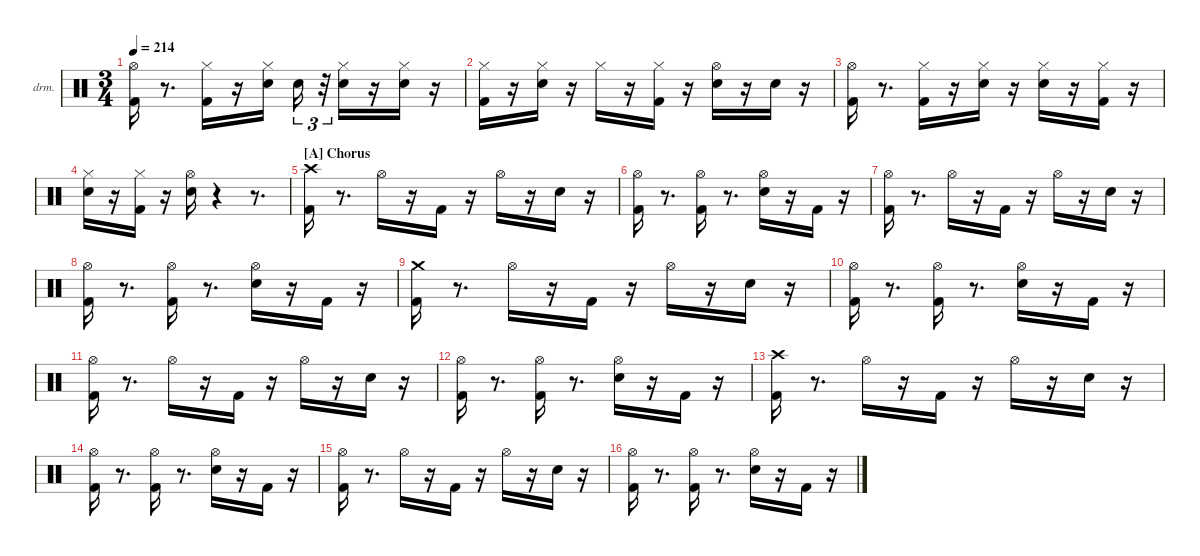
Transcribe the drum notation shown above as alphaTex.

\hideDynamics
\bracketExtendMode nobrackets
\firstSystemTrackNameOrientation horizontal
\track ("EZdrummer 3" "drm.") {instrument percussion}
\staff {score}
\articulation defaults
\ts (3 4)
\tempo 214
\clef neutral
\ks aminor
("Kick (hit) 2" "Hi-Hat (open)"{acc #}).16{dy ff} r.8{d} ("Kick (hit) 2" "Hi-Hat (closed)"{acc #}).16{dy mf} r.16 ("Snare (hit) 2" "Hi-Hat (closed)"{acc #}).16{dy f} "Snare (hit) 2".16{tu (3 2) dy p} r.32{tu (3 2)} ("Snare (hit) 2" "Hi-Hat (closed)"{acc #}).16{dy ppp} r.16 ("Snare (hit) 2" "Hi-Hat (closed)"{acc #}).16{dy pp} r.16 |
("Kick (hit) 2" "Hi-Hat (closed)"{acc #}).16{dy mf} r.16 ("Snare (hit) 2" "Hi-Hat (closed)"{acc #}).16{dy f} r.16 "Hi-Hat (closed)"{acc #}.16 r.16 ("Kick (hit) 2" "Hi-Hat (closed)"{acc #}).16 r.16 ("Snare (hit) 2" "Hi-Hat (open)"{acc #}).16 r.16 "Snare (hit) 2".16{dy pp} r.16 |
("Kick (hit) 2" "Hi-Hat (open)"{acc #}).16{dy ff} r.8{d} ("Kick (hit) 2" "Hi-Hat (closed)"{acc #}).16{dy f} r.16 ("Snare (hit) 2" "Hi-Hat (closed)"{acc #}).16 r.16 ("Snare (hit) 2" "Hi-Hat (closed)"{acc #}).16{dy ppp} r.16 ("Kick (hit) 2" "Hi-Hat (closed)"{acc #}).16{dy mf} r.16 |
("Snare (hit) 2" "Hi-Hat (closed)"{acc #}).16 r.16 ("Kick (hit) 2" "Hi-Hat (closed)"{acc #}).16 r.16 ("Snare (hit) 2" "Hi-Hat (open)"{acc #}).16{dy ff} r.4 r.8{d} |
\section ("A" "Chorus")
("Kick (hit) 2" "Crash high (hit)"{acc #}).16{dy fff} r.8{d} "Hi-Hat (open)"{acc #}.16{dy mf} r.16 "Kick (hit) 2".16{dy ff} r.16 "Hi-Hat (open)"{acc #}.16{dy f} r.16 "Snare (hit) 2".16{dy ff} r.16 |
("Kick (hit) 2" "Hi-Hat (open)"{acc #}).16 r.8{d} ("Kick (hit) 2" "Hi-Hat (open)"{acc #}).16{dy f} r.8{d} ("Snare (hit) 2" "Hi-Hat (open)"{acc #}).16 r.16 "Kick (hit) 2".16{dy mp} r.16 |
("Kick (hit) 2" "Hi-Hat (open)"{acc #}).16{dy fff} r.8{d} "Hi-Hat (open)"{acc #}.16{dy mf} r.16 "Kick (hit) 2".16{dy ff} r.16 "Hi-Hat (open)"{acc #}.16{dy f} r.16 "Snare (hit) 2".16{dy ff} r.16 |
("Kick (hit) 2" "Hi-Hat (open)"{acc #}).16{dy fff} r.8{d} ("Kick (hit) 2" "Hi-Hat (open)"{acc #}).16{dy ff} r.8{d} ("Snare (hit) 2" "Hi-Hat (open)"{acc #}).16{dy f} r.16 "Kick (hit) 2".16{dy mp} r.16 |
("Kick (hit) 2" "Crash medium (hit)").16{dy fff} r.8{d} "Hi-Hat (open)"{acc #}.16{dy mf} r.16 "Kick (hit) 2".16{dy ff} r.16 "Hi-Hat (open)"{acc #}.16{dy f} r.16 "Snare (hit) 2".16{dy ff} r.16 |
("Kick (hit) 2" "Hi-Hat (open)"{acc #}).16{dy fff} r.8{d} ("Kick (hit) 2" "Hi-Hat (open)"{acc #}).16{dy f} r.8{d} ("Snare (hit) 2" "Hi-Hat (open)"{acc #}).16 r.16 "Kick (hit) 2".16{dy mp} r.16 |
("Kick (hit) 2" "Hi-Hat (open)"{acc #}).16{dy fff} r.8{d} "Hi-Hat (open)"{acc #}.16{dy mf} r.16 "Kick (hit) 2".16{dy ff} r.16 "Hi-Hat (open)"{acc #}.16{dy f} r.16 "Snare (hit) 2".16{dy ff} r.16 |
("Kick (hit) 2" "Hi-Hat (open)"{acc #}).16{dy fff} r.8{d} ("Kick (hit) 2" "Hi-Hat (open)"{acc #}).16{dy ff} r.8{d} ("Snare (hit) 2" "Hi-Hat (open)"{acc #}).16{dy f} r.16 "Kick (hit) 2".16{dy mp} r.16 |
("Kick (hit) 2" "Crash high (hit)"{acc #}).16{dy fff} r.8{d} "Hi-Hat (open)"{acc #}.16{dy mf} r.16 "Kick (hit) 2".16{dy ff} r.16 "Hi-Hat (open)"{acc #}.16{dy f} r.16 "Snare (hit) 2".16{dy ff} r.16 |
("Kick (hit) 2" "Hi-Hat (open)"{acc #}).16 r.8{d} ("Kick (hit) 2" "Hi-Hat (open)"{acc #}).16{dy f} r.8{d} ("Snare (hit) 2" "Hi-Hat (open)"{acc #}).16 r.16 "Kick (hit) 2".16{dy mp} r.16 |
("Kick (hit) 2" "Hi-Hat (open)"{acc #}).16{dy fff} r.8{d} "Hi-Hat (open)"{acc #}.16{dy mf} r.16 "Kick (hit) 2".16{dy ff} r.16 "Hi-Hat (open)"{acc #}.16{dy f} r.16 "Snare (hit) 2".16{dy ff} r.16 |
("Kick (hit) 2" "Hi-Hat (open)"{acc #}).16{dy fff} r.8{d} ("Kick (hit) 2" "Hi-Hat (open)"{acc #}).16{dy ff} r.8{d} ("Snare (hit) 2" "Hi-Hat (open)"{acc #}).16{dy f} r.16 "Kick (hit) 2".16{dy mp} r.16
